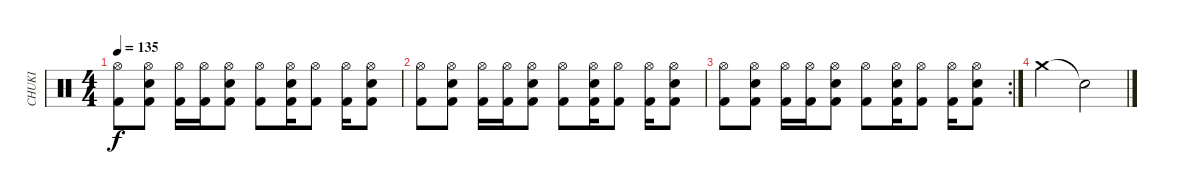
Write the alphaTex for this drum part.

\track ("CHUKI" "CHUKI") {instrument percussion}
\staff {score}
\articulation defaults
\ts (4 4)
\tempo 135
\clef neutral
\ks c
("Kick (hit) 2" "Hi-Hat (open)").8{dy f} ("Kick (hit) 2" "Electric Snare (hit)" "Hi-Hat (open)").8 ("Kick (hit) 2" "Hi-Hat (open)").16 ("Kick (hit) 2" "Hi-Hat (open)").16 ("Kick (hit) 2" "Electric Snare (hit)" "Hi-Hat (open)").8 ("Kick (hit) 2" "Hi-Hat (open)").8 ("Kick (hit) 2" "Electric Snare (hit)" "Hi-Hat (open)").16 ("Kick (hit) 2" "Hi-Hat (open)").8 ("Kick (hit) 2" "Hi-Hat (open)").16 ("Kick (hit) 2" "Electric Snare (hit)" "Hi-Hat (open)").8 |
("Kick (hit) 2" "Hi-Hat (open)").8 ("Kick (hit) 2" "Electric Snare (hit)" "Hi-Hat (open)").8 ("Kick (hit) 2" "Hi-Hat (open)").16 ("Kick (hit) 2" "Hi-Hat (open)").16 ("Kick (hit) 2" "Electric Snare (hit)" "Hi-Hat (open)").8 ("Kick (hit) 2" "Hi-Hat (open)").8 ("Kick (hit) 2" "Electric Snare (hit)" "Hi-Hat (open)").16 ("Kick (hit) 2" "Hi-Hat (open)").8 ("Kick (hit) 2" "Hi-Hat (open)").16 ("Kick (hit) 2" "Electric Snare (hit)" "Hi-Hat (open)").8 |
\rc 2
("Kick (hit) 2" "Hi-Hat (open)").8 ("Kick (hit) 2" "Electric Snare (hit)" "Hi-Hat (open)").8 ("Kick (hit) 2" "Hi-Hat (open)").16 ("Kick (hit) 2" "Hi-Hat (open)").16 ("Kick (hit) 2" "Electric Snare (hit)" "Hi-Hat (open)").8 ("Kick (hit) 2" "Hi-Hat (open)").8 ("Kick (hit) 2" "Electric Snare (hit)" "Hi-Hat (open)").16 ("Kick (hit) 2" "Hi-Hat (open)").8 ("Kick (hit) 2" "Hi-Hat (open)").16 ("Kick (hit) 2" "Electric Snare (hit)" "Hi-Hat (open)").8 |
"Crash medium (hit)".2 "Snare (hit)"{t}.2
